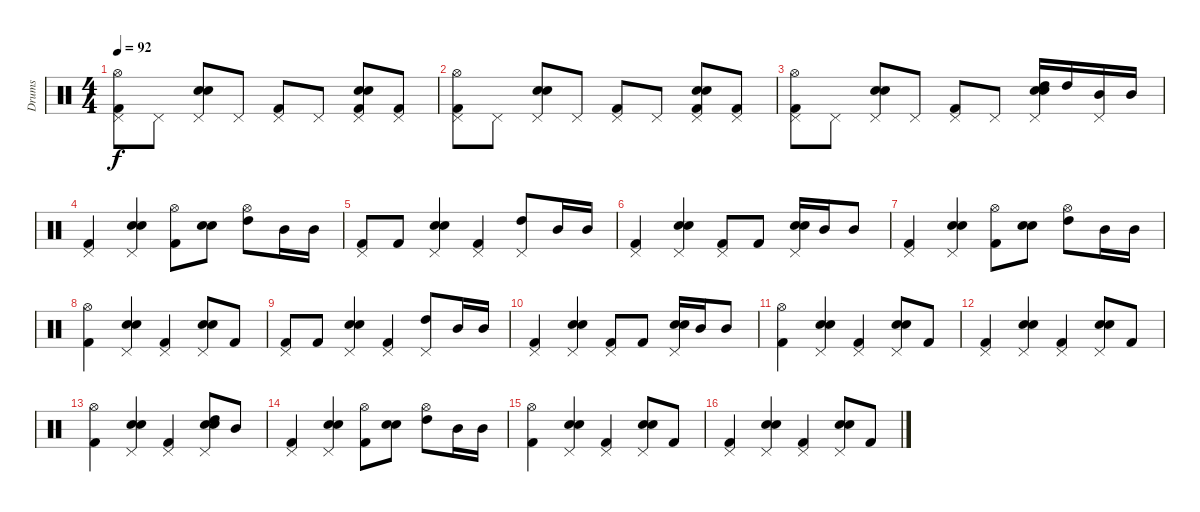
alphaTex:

\track ("Drums" "Drums") {instrument percussion}
\staff {score}
\articulation defaults
\ts (4 4)
\tempo 92
\clef neutral
\ks c
("Hi-Hat (open)" "Kick (hit) 2" "Pedal Hi-Hat (hit)").8{dy f} "Pedal Hi-Hat (hit)".8 ("Snare (hit) 2" "Electric Snare (hit)" "Pedal Hi-Hat (hit)").8 "Pedal Hi-Hat (hit)".8 ("Kick (hit) 2" "Pedal Hi-Hat (hit)").8 "Pedal Hi-Hat (hit)".8 ("Snare (hit) 2" "Electric Snare (hit)" "Kick (hit) 2" "Pedal Hi-Hat (hit)").8 ("Kick (hit) 2" "Pedal Hi-Hat (hit)").8 |
("Hi-Hat (open)" "Kick (hit) 2" "Pedal Hi-Hat (hit)").8 "Pedal Hi-Hat (hit)".8 ("Snare (hit) 2" "Electric Snare (hit)" "Pedal Hi-Hat (hit)").8 "Pedal Hi-Hat (hit)".8 ("Kick (hit) 2" "Pedal Hi-Hat (hit)").8 "Pedal Hi-Hat (hit)".8 ("Snare (hit) 2" "Electric Snare (hit)" "Kick (hit) 2" "Pedal Hi-Hat (hit)").8 ("Kick (hit) 2" "Pedal Hi-Hat (hit)").8 |
("Hi-Hat (open)" "Kick (hit) 2" "Pedal Hi-Hat (hit)").8 "Pedal Hi-Hat (hit)".8 ("Snare (hit) 2" "Electric Snare (hit)" "Pedal Hi-Hat (hit)").8 "Pedal Hi-Hat (hit)".8 ("Kick (hit) 2" "Pedal Hi-Hat (hit)").8 "Pedal Hi-Hat (hit)".8 ("Snare (hit) 2" "Electric Snare (hit)" "High Tom (hit)" "Pedal Hi-Hat (hit)").16 "High Tom (hit)".16 ("Mid Tom (hit)" "Pedal Hi-Hat (hit)").16 "Mid Tom (hit)".16 |
("Kick (hit) 2" "Pedal Hi-Hat (hit)").4 ("Snare (hit) 2" "Electric Snare (hit)" "Pedal Hi-Hat (hit)").4 ("Hi-Hat (open)" "Kick (hit) 2").8 ("Snare (hit) 2" "Electric Snare (hit)").8 ("Hi-Hat (open)" "High Tom (hit)").8 "Mid Tom (hit)".16 "Mid Tom (hit)".16 |
("Kick (hit) 2" "Pedal Hi-Hat (hit)").8 "Kick (hit) 2".8 ("Snare (hit) 2" "Electric Snare (hit)" "Pedal Hi-Hat (hit)").4 ("Kick (hit) 2" "Pedal Hi-Hat (hit)").4 ("High Tom (hit)" "Pedal Hi-Hat (hit)").8 "Mid Tom (hit)".16 "Mid Tom (hit)".16 |
("Kick (hit) 2" "Pedal Hi-Hat (hit)").4 ("Snare (hit) 2" "Electric Snare (hit)" "Pedal Hi-Hat (hit)").4 ("Kick (hit) 2" "Pedal Hi-Hat (hit)").8 "Kick (hit) 2".8 ("Snare (hit) 2" "Electric Snare (hit)" "Pedal Hi-Hat (hit)").16 "Mid Tom (hit)".16 "Mid Tom (hit)".8 |
("Kick (hit) 2" "Pedal Hi-Hat (hit)").4 ("Snare (hit) 2" "Electric Snare (hit)" "Pedal Hi-Hat (hit)").4 ("Hi-Hat (open)" "Kick (hit) 2").8 ("Snare (hit) 2" "Electric Snare (hit)").8 ("Hi-Hat (open)" "High Tom (hit)").8 "Mid Tom (hit)".16 "Mid Tom (hit)".16 |
("Hi-Hat (open)" "Kick (hit) 2").4 ("Snare (hit) 2" "Electric Snare (hit)" "Pedal Hi-Hat (hit)").4 ("Kick (hit) 2" "Pedal Hi-Hat (hit)").4 ("Snare (hit) 2" "Electric Snare (hit)" "Pedal Hi-Hat (hit)").8 "Kick (hit) 2".8 |
("Kick (hit) 2" "Pedal Hi-Hat (hit)").8 "Kick (hit) 2".8 ("Snare (hit) 2" "Electric Snare (hit)" "Pedal Hi-Hat (hit)").4 ("Kick (hit) 2" "Pedal Hi-Hat (hit)").4 ("High Tom (hit)" "Pedal Hi-Hat (hit)").8 "Mid Tom (hit)".16 "Mid Tom (hit)".16 |
("Kick (hit) 2" "Pedal Hi-Hat (hit)").4 ("Snare (hit) 2" "Electric Snare (hit)" "Pedal Hi-Hat (hit)").4 ("Kick (hit) 2" "Pedal Hi-Hat (hit)").8 "Kick (hit) 2".8 ("Snare (hit) 2" "Electric Snare (hit)" "Pedal Hi-Hat (hit)").16 "Mid Tom (hit)".16 "Mid Tom (hit)".8 |
("Hi-Hat (open)" "Kick (hit) 2").4 ("Snare (hit) 2" "Electric Snare (hit)" "Pedal Hi-Hat (hit)").4 ("Kick (hit) 2" "Pedal Hi-Hat (hit)").4 ("Snare (hit) 2" "Electric Snare (hit)" "Pedal Hi-Hat (hit)").8 "Kick (hit) 2".8 |
("Kick (hit) 2" "Pedal Hi-Hat (hit)").4 ("Snare (hit) 2" "Electric Snare (hit)" "Pedal Hi-Hat (hit)").4 ("Kick (hit) 2" "Pedal Hi-Hat (hit)").4 ("Snare (hit) 2" "Electric Snare (hit)" "Pedal Hi-Hat (hit)").8 "Kick (hit) 2".8 |
("Hi-Hat (open)" "Kick (hit) 2").4 ("Snare (hit) 2" "Electric Snare (hit)" "Pedal Hi-Hat (hit)").4 ("Kick (hit) 2" "Pedal Hi-Hat (hit)").4 ("Snare (hit) 2" "Electric Snare (hit)" "High Tom (hit)" "Pedal Hi-Hat (hit)").8 "Mid Tom (hit)".8 |
("Kick (hit) 2" "Pedal Hi-Hat (hit)").4 ("Snare (hit) 2" "Electric Snare (hit)" "Pedal Hi-Hat (hit)").4 ("Hi-Hat (open)" "Kick (hit) 2").8 ("Snare (hit) 2" "Electric Snare (hit)").8 ("Hi-Hat (open)" "High Tom (hit)").8 "Mid Tom (hit)".16 "Mid Tom (hit)".16 |
("Hi-Hat (open)" "Kick (hit) 2").4 ("Snare (hit) 2" "Electric Snare (hit)" "Pedal Hi-Hat (hit)").4 ("Kick (hit) 2" "Pedal Hi-Hat (hit)").4 ("Snare (hit) 2" "Electric Snare (hit)" "Pedal Hi-Hat (hit)").8 "Kick (hit) 2".8 |
("Kick (hit) 2" "Pedal Hi-Hat (hit)").4 ("Snare (hit) 2" "Electric Snare (hit)" "Pedal Hi-Hat (hit)").4 ("Kick (hit) 2" "Pedal Hi-Hat (hit)").4 ("Snare (hit) 2" "Electric Snare (hit)" "Pedal Hi-Hat (hit)").8 "Kick (hit) 2".8
